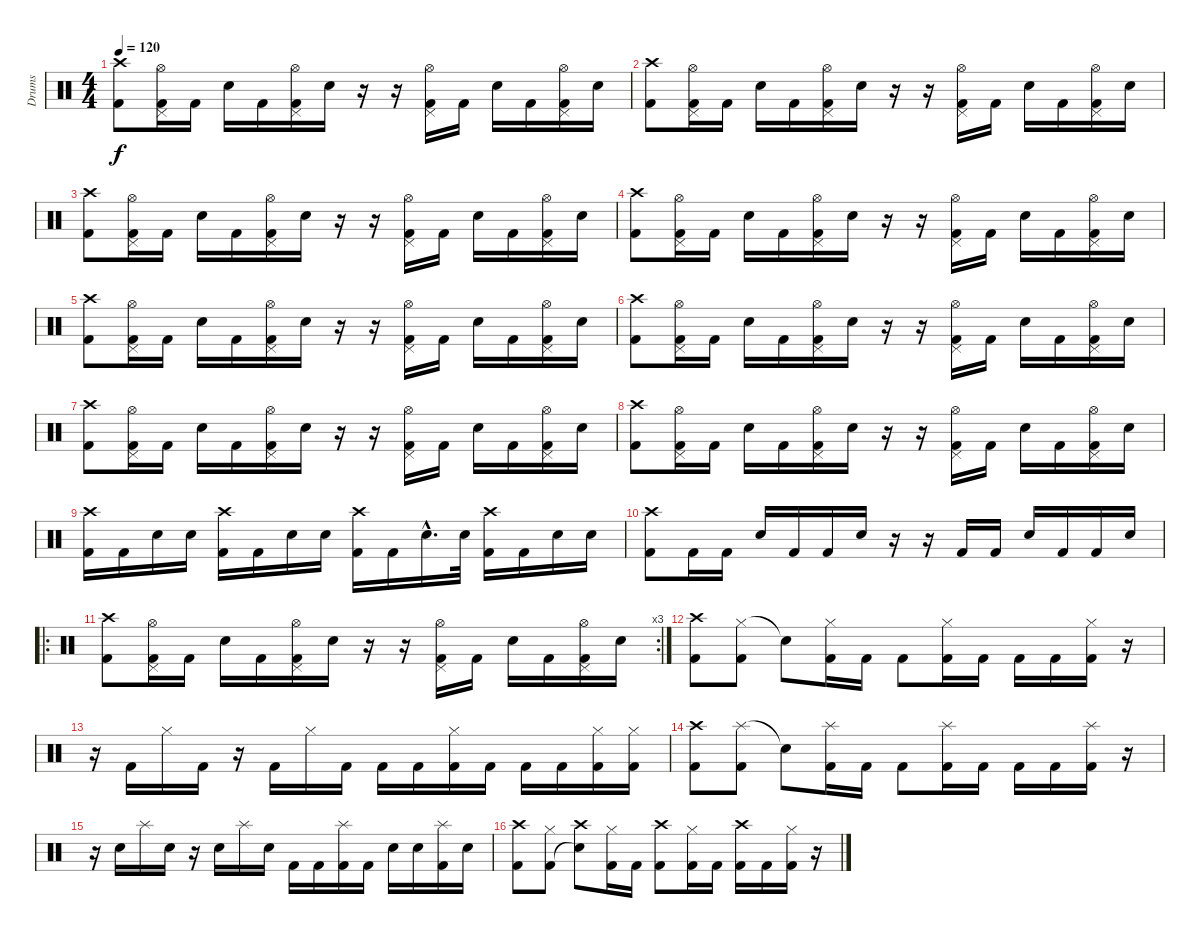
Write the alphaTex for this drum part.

\track ("Drums" "Drums") {instrument percussion}
\staff {score}
\articulation defaults
\ts (4 4)
\tempo 120
\clef neutral
\ks c
("Crash high (hit)" "Kick (hit) 2").8{dy f} ("Pedal Hi-Hat (hit)" "Hi-Hat (open)" "Kick (hit) 2").16 "Kick (hit) 2".16 "Electric Snare (hit)".16 "Kick (hit) 2".16 ("Pedal Hi-Hat (hit)" "Hi-Hat (open)" "Kick (hit) 2").16 "Electric Snare (hit)".16 r.16 r.16 ("Pedal Hi-Hat (hit)" "Hi-Hat (open)" "Kick (hit) 2").16 "Kick (hit) 2".16 "Electric Snare (hit)".16 "Kick (hit) 2".16 ("Pedal Hi-Hat (hit)" "Hi-Hat (open)" "Kick (hit) 2").16 "Electric Snare (hit)".16 |
("Crash high (hit)" "Kick (hit) 2").8 ("Pedal Hi-Hat (hit)" "Hi-Hat (open)" "Kick (hit) 2").16 "Kick (hit) 2".16 "Electric Snare (hit)".16 "Kick (hit) 2".16 ("Pedal Hi-Hat (hit)" "Hi-Hat (open)" "Kick (hit) 2").16 "Electric Snare (hit)".16 r.16 r.16 ("Pedal Hi-Hat (hit)" "Hi-Hat (open)" "Kick (hit) 2").16 "Kick (hit) 2".16 "Electric Snare (hit)".16 "Kick (hit) 2".16 ("Pedal Hi-Hat (hit)" "Hi-Hat (open)" "Kick (hit) 2").16 "Electric Snare (hit)".16 |
("Crash high (hit)" "Kick (hit) 2").8 ("Pedal Hi-Hat (hit)" "Hi-Hat (open)" "Kick (hit) 2").16 "Kick (hit) 2".16 "Electric Snare (hit)".16 "Kick (hit) 2".16 ("Pedal Hi-Hat (hit)" "Hi-Hat (open)" "Kick (hit) 2").16 "Electric Snare (hit)".16 r.16 r.16 ("Pedal Hi-Hat (hit)" "Hi-Hat (open)" "Kick (hit) 2").16 "Kick (hit) 2".16 "Electric Snare (hit)".16 "Kick (hit) 2".16 ("Pedal Hi-Hat (hit)" "Hi-Hat (open)" "Kick (hit) 2").16 "Electric Snare (hit)".16 |
("Crash high (hit)" "Kick (hit) 2").8 ("Pedal Hi-Hat (hit)" "Hi-Hat (open)" "Kick (hit) 2").16 "Kick (hit) 2".16 "Electric Snare (hit)".16 "Kick (hit) 2".16 ("Pedal Hi-Hat (hit)" "Hi-Hat (open)" "Kick (hit) 2").16 "Electric Snare (hit)".16 r.16 r.16 ("Pedal Hi-Hat (hit)" "Hi-Hat (open)" "Kick (hit) 2").16 "Kick (hit) 2".16 "Electric Snare (hit)".16 "Kick (hit) 2".16 ("Pedal Hi-Hat (hit)" "Hi-Hat (open)" "Kick (hit) 2").16 "Electric Snare (hit)".16 |
("Crash high (hit)" "Kick (hit) 2").8 ("Pedal Hi-Hat (hit)" "Hi-Hat (open)" "Kick (hit) 2").16 "Kick (hit) 2".16 "Electric Snare (hit)".16 "Kick (hit) 2".16 ("Pedal Hi-Hat (hit)" "Hi-Hat (open)" "Kick (hit) 2").16 "Electric Snare (hit)".16 r.16 r.16 ("Pedal Hi-Hat (hit)" "Hi-Hat (open)" "Kick (hit) 2").16 "Kick (hit) 2".16 "Electric Snare (hit)".16 "Kick (hit) 2".16 ("Pedal Hi-Hat (hit)" "Hi-Hat (open)" "Kick (hit) 2").16 "Electric Snare (hit)".16 |
("Crash high (hit)" "Kick (hit) 2").8 ("Pedal Hi-Hat (hit)" "Hi-Hat (open)" "Kick (hit) 2").16 "Kick (hit) 2".16 "Electric Snare (hit)".16 "Kick (hit) 2".16 ("Pedal Hi-Hat (hit)" "Hi-Hat (open)" "Kick (hit) 2").16 "Electric Snare (hit)".16 r.16 r.16 ("Pedal Hi-Hat (hit)" "Hi-Hat (open)" "Kick (hit) 2").16 "Kick (hit) 2".16 "Electric Snare (hit)".16 "Kick (hit) 2".16 ("Pedal Hi-Hat (hit)" "Hi-Hat (open)" "Kick (hit) 2").16 "Electric Snare (hit)".16 |
("Crash high (hit)" "Kick (hit) 2").8 ("Pedal Hi-Hat (hit)" "Hi-Hat (open)" "Kick (hit) 2").16 "Kick (hit) 2".16 "Electric Snare (hit)".16 "Kick (hit) 2".16 ("Pedal Hi-Hat (hit)" "Hi-Hat (open)" "Kick (hit) 2").16 "Electric Snare (hit)".16 r.16 r.16 ("Pedal Hi-Hat (hit)" "Hi-Hat (open)" "Kick (hit) 2").16 "Kick (hit) 2".16 "Electric Snare (hit)".16 "Kick (hit) 2".16 ("Pedal Hi-Hat (hit)" "Hi-Hat (open)" "Kick (hit) 2").16 "Electric Snare (hit)".16 |
("Crash high (hit)" "Kick (hit) 2").8 ("Pedal Hi-Hat (hit)" "Hi-Hat (open)" "Kick (hit) 2").16 "Kick (hit) 2".16 "Electric Snare (hit)".16 "Kick (hit) 2".16 ("Pedal Hi-Hat (hit)" "Hi-Hat (open)" "Kick (hit) 2").16 "Electric Snare (hit)".16 r.16 r.16 ("Pedal Hi-Hat (hit)" "Hi-Hat (open)" "Kick (hit) 2").16 "Kick (hit) 2".16 "Electric Snare (hit)".16 "Kick (hit) 2".16 ("Pedal Hi-Hat (hit)" "Hi-Hat (open)" "Kick (hit) 2").16 "Electric Snare (hit)".16 |
("Crash high (hit)" "Kick (hit) 2").16 "Kick (hit) 2".16 "Electric Snare (hit)".16 "Electric Snare (hit)".16 ("Crash high (hit)" "Kick (hit) 2").16 "Kick (hit) 2".16 "Electric Snare (hit)".16 "Electric Snare (hit)".16 ("Crash high (hit)" "Kick (hit) 2").16 "Kick (hit) 2".16 "Electric Snare (hit)"{hac}.16{d} "Electric Snare (hit)".32 ("Crash high (hit)" "Kick (hit) 2").16 "Kick (hit) 2".16 "Electric Snare (hit)".16 "Electric Snare (hit)".16 |
("Crash high (hit)" "Kick (hit) 2").8 "Kick (hit) 2".16 "Kick (hit) 2".16 "Electric Snare (hit)".16 "Kick (hit) 2".16 "Kick (hit) 2".16 "Electric Snare (hit)".16 r.16 r.16 "Kick (hit) 2".16 "Kick (hit) 2".16 "Electric Snare (hit)".16 "Kick (hit) 2".16 "Kick (hit) 2".16 "Electric Snare (hit)".16 |
\ro
\rc 3
("Crash high (hit)" "Kick (hit) 2").8 ("Pedal Hi-Hat (hit)" "Hi-Hat (open)" "Kick (hit) 2").16 "Kick (hit) 2".16 "Electric Snare (hit)".16 "Kick (hit) 2".16 ("Pedal Hi-Hat (hit)" "Hi-Hat (open)" "Kick (hit) 2").16 "Electric Snare (hit)".16 r.16 r.16 ("Pedal Hi-Hat (hit)" "Hi-Hat (open)" "Kick (hit) 2").16 "Kick (hit) 2".16 "Electric Snare (hit)".16 "Kick (hit) 2".16 ("Pedal Hi-Hat (hit)" "Hi-Hat (open)" "Kick (hit) 2").16 "Electric Snare (hit)".16 |
("Crash high (hit)" "Kick (hit) 2").8 ("Hi-Hat (closed)" "Kick (hit) 2").8 "Snare (hit)"{t}.8 ("Hi-Hat (closed)" "Kick (hit) 2").16 "Kick (hit) 2".16 "Kick (hit) 2".8 ("Hi-Hat (closed)" "Kick (hit) 2").16 "Kick (hit) 2".16 "Kick (hit) 2".16 "Kick (hit) 2".16 ("Hi-Hat (closed)" "Kick (hit) 2").16 r.16 |
r.16 "Kick (hit) 2".16 "Hi-Hat (closed)".16 "Kick (hit) 2".16 r.16 "Kick (hit) 2".16 "Hi-Hat (closed)".16 "Kick (hit) 2".16 "Kick (hit) 2".16 "Kick (hit) 2".16 ("Hi-Hat (closed)" "Kick (hit) 2").16 "Kick (hit) 2".16 "Kick (hit) 2".16 "Kick (hit) 2".16 ("Hi-Hat (closed)" "Kick (hit) 2").16 ("Hi-Hat (closed)" "Kick (hit) 2").16 |
("Crash high (hit)" "Kick (hit) 2").8 ("Splash (hit)" "Kick (hit) 2").8 "Snare (hit)"{t}.8 ("Splash (hit)" "Kick (hit) 2").16 "Kick (hit) 2".16 "Kick (hit) 2".8 ("Splash (hit)" "Kick (hit) 2").16 "Kick (hit) 2".16 "Kick (hit) 2".16 "Kick (hit) 2".16 ("Splash (hit)" "Kick (hit) 2").16 r.16 |
r.16 "Electric Snare (hit)".16 "Splash (hit)".16 "Electric Snare (hit)".16 r.16 "Electric Snare (hit)".16 "Splash (hit)".16 "Electric Snare (hit)".16 "Kick (hit) 2".16 "Kick (hit) 2".16 ("Splash (hit)" "Kick (hit) 2").16 "Kick (hit) 2".16 "Electric Snare (hit)".16 "Electric Snare (hit)".16 ("Splash (hit)" "Kick (hit) 2").16 "Electric Snare (hit)".16 |
("Crash high (hit)" "Kick (hit) 2").8 ("Hi-Hat (closed)" "Kick (hit) 2").8 ("Crash high (hit)" "Snare (hit)"{t}).8 ("Hi-Hat (closed)" "Kick (hit) 2").16 "Kick (hit) 2".16 ("Crash high (hit)" "Kick (hit) 2").8 ("Hi-Hat (closed)" "Kick (hit) 2").16 "Kick (hit) 2".16 ("Crash high (hit)" "Kick (hit) 2").16 "Kick (hit) 2".16 ("Hi-Hat (closed)" "Kick (hit) 2").16 r.16
